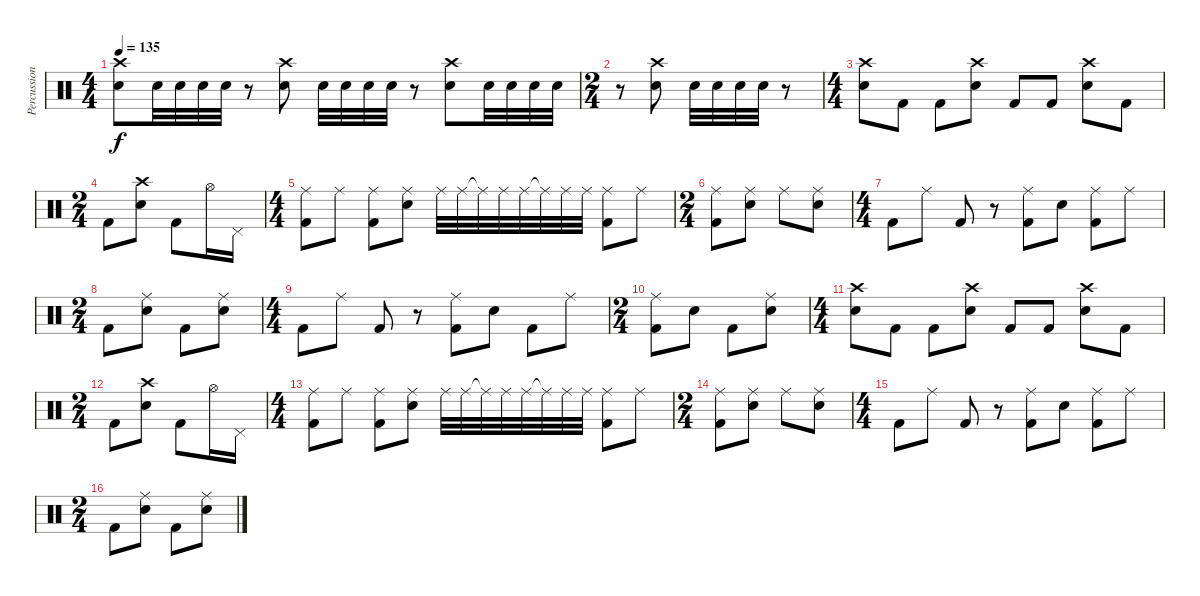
\track ("Percussion" "Percussion") {instrument percussion}
\staff {score}
\articulation defaults
\ts (4 4)
\tempo 135
\clef neutral
\ks c
("Crash high (hit)" "Electric Snare (hit)").8{dy f} "Electric Snare (hit)".32 "Electric Snare (hit)".32 "Electric Snare (hit)".32 "Electric Snare (hit)".32 r.8 ("Crash high (hit)" "Electric Snare (hit)").8 "Electric Snare (hit)".32 "Electric Snare (hit)".32 "Electric Snare (hit)".32 "Electric Snare (hit)".32 r.8 ("Crash high (hit)" "Electric Snare (hit)").8 "Electric Snare (hit)".32 "Electric Snare (hit)".32 "Electric Snare (hit)".32 "Electric Snare (hit)".32 |
\ts (2 4)
r.8 ("Crash high (hit)" "Electric Snare (hit)").8 "Electric Snare (hit)".32 "Electric Snare (hit)".32 "Electric Snare (hit)".32 "Electric Snare (hit)".32 r.8 |
\ts (4 4)
("Crash high (hit)" "Electric Snare (hit)").8 "Kick (hit) 2".8 "Kick (hit) 2".8 ("Crash high (hit)" "Electric Snare (hit)").8 "Kick (hit) 2".8 "Kick (hit) 2".8 ("Crash high (hit)" "Electric Snare (hit)").8 "Kick (hit) 2".8 |
\ts (2 4)
"Kick (hit) 2".8 ("Crash high (hit)" "Electric Snare (hit)").8 "Kick (hit) 2".8 "Hi-Hat (open)".16 "Pedal Hi-Hat (hit)".16 |
\ts (4 4)
("Ride (middle)" "Kick (hit) 2").8 "Ride (middle)".8 ("Ride (middle)" "Kick (hit) 2").8 ("Ride (middle)" "Electric Snare (hit)").8 "Ride (middle)".32 "Ride (middle)".32 "Ride (middle)"{t}.32 "Ride (middle)".32 "Ride (middle)".32 "Ride (middle)"{t}.32 "Ride (middle)".32 "Ride (middle)".32 ("Ride (middle)" "Kick (hit) 2").8 "Ride (middle)".8 |
\ts (2 4)
("Ride (middle)" "Kick (hit) 2").8 ("Ride (middle)" "Electric Snare (hit)").8 "Ride (middle)".8 ("Ride (middle)" "Electric Snare (hit)").8 |
\ts (4 4)
"Kick (hit) 2".8 "Ride (middle)".8 "Kick (hit) 2".8 r.8 ("Ride (middle)" "Kick (hit) 2").8 "Electric Snare (hit)".8 ("Ride (middle)" "Kick (hit) 2").8 "Ride (middle)".8 |
\ts (2 4)
"Kick (hit) 2".8 ("Ride (middle)" "Electric Snare (hit)").8 "Kick (hit) 2".8 ("Ride (middle)" "Electric Snare (hit)").8 |
\ts (4 4)
"Kick (hit) 2".8 "Ride (middle)".8 "Kick (hit) 2".8 r.8 ("Ride (middle)" "Kick (hit) 2").8 "Electric Snare (hit)".8 "Kick (hit) 2".8 "Ride (middle)".8 |
\ts (2 4)
("Ride (middle)" "Kick (hit) 2").8 "Electric Snare (hit)".8 "Kick (hit) 2".8 ("Ride (middle)" "Electric Snare (hit)").8 |
\ts (4 4)
("Crash high (hit)" "Electric Snare (hit)").8 "Kick (hit) 2".8 "Kick (hit) 2".8 ("Crash high (hit)" "Electric Snare (hit)").8 "Kick (hit) 2".8 "Kick (hit) 2".8 ("Crash high (hit)" "Electric Snare (hit)").8 "Kick (hit) 2".8 |
\ts (2 4)
"Kick (hit) 2".8 ("Crash high (hit)" "Electric Snare (hit)").8 "Kick (hit) 2".8 "Hi-Hat (open)".16 "Pedal Hi-Hat (hit)".16 |
\ts (4 4)
("Ride (middle)" "Kick (hit) 2").8 "Ride (middle)".8 ("Ride (middle)" "Kick (hit) 2").8 ("Ride (middle)" "Electric Snare (hit)").8 "Ride (middle)".32 "Ride (middle)".32 "Ride (middle)"{t}.32 "Ride (middle)".32 "Ride (middle)".32 "Ride (middle)"{t}.32 "Ride (middle)".32 "Ride (middle)".32 ("Ride (middle)" "Kick (hit) 2").8 "Ride (middle)".8 |
\ts (2 4)
("Ride (middle)" "Kick (hit) 2").8 ("Ride (middle)" "Electric Snare (hit)").8 "Ride (middle)".8 ("Ride (middle)" "Electric Snare (hit)").8 |
\ts (4 4)
"Kick (hit) 2".8 "Ride (middle)".8 "Kick (hit) 2".8 r.8 ("Ride (middle)" "Kick (hit) 2").8 "Electric Snare (hit)".8 ("Ride (middle)" "Kick (hit) 2").8 "Ride (middle)".8 |
\ts (2 4)
"Kick (hit) 2".8 ("Ride (middle)" "Electric Snare (hit)").8 "Kick (hit) 2".8 ("Ride (middle)" "Electric Snare (hit)").8
